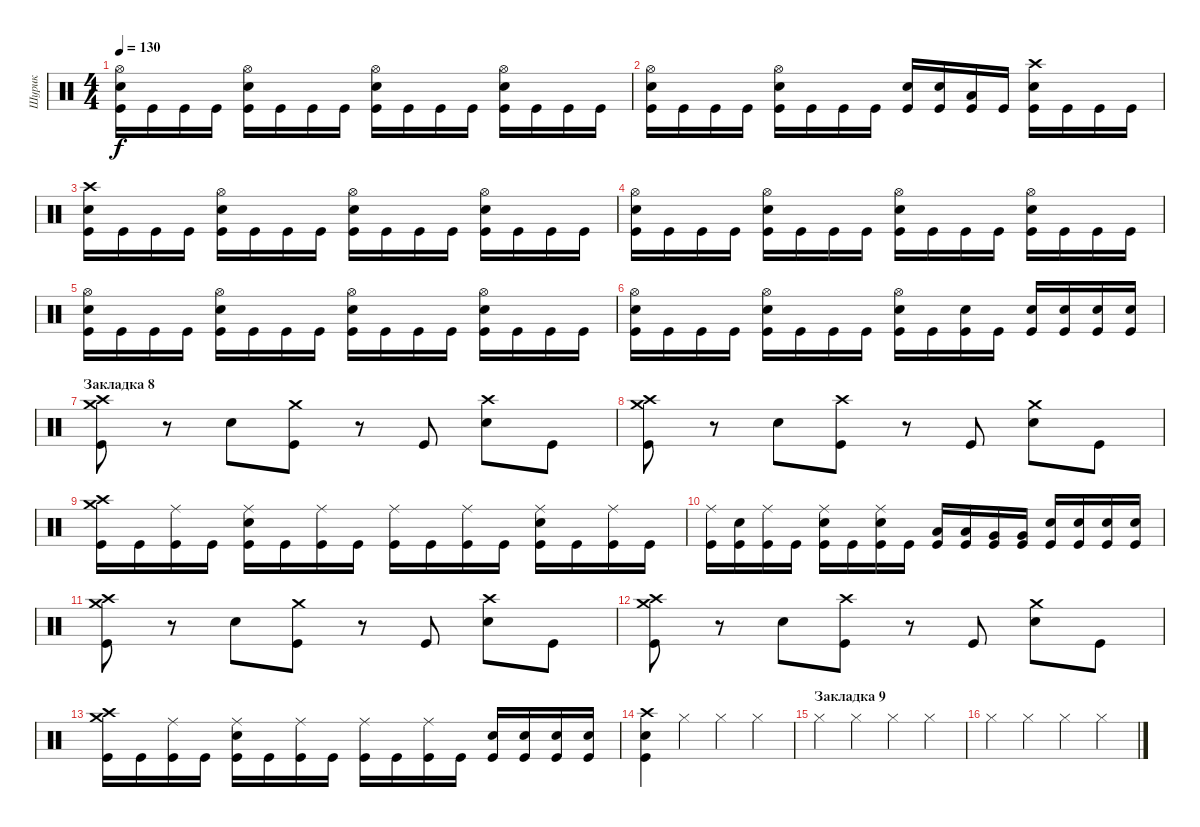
\track ("Шурик" "Шурик") {instrument percussion}
\staff {score}
\articulation defaults
\ts (4 4)
\tempo 130
\clef neutral
\ks c
("Hi-Hat (open)" "Electric Snare (hit)" "Kick (hit)").16{dy f} "Kick (hit)".16 "Kick (hit)".16 "Kick (hit)".16 ("Hi-Hat (open)" "Electric Snare (hit)" "Kick (hit)").16 "Kick (hit)".16 "Kick (hit)".16 "Kick (hit)".16 ("Hi-Hat (open)" "Electric Snare (hit)" "Kick (hit)").16 "Kick (hit)".16 "Kick (hit)".16 "Kick (hit)".16 ("Hi-Hat (open)" "Electric Snare (hit)" "Kick (hit)").16 "Kick (hit)".16 "Kick (hit)".16 "Kick (hit)".16 |
("Hi-Hat (open)" "Electric Snare (hit)" "Kick (hit)").16 "Kick (hit)".16 "Kick (hit)".16 "Kick (hit)".16 ("Hi-Hat (open)" "Electric Snare (hit)" "Kick (hit)").16 "Kick (hit)".16 "Kick (hit)".16 "Kick (hit)".16 ("Electric Snare (hit)" "Kick (hit)").16 ("Electric Snare (hit)" "Kick (hit)").16 ("Low Tom (hit)" "Kick (hit)").16 "Kick (hit)".16 ("Crash high (hit)" "Electric Snare (hit)" "Kick (hit)").16 "Kick (hit)".16 "Kick (hit)".16 "Kick (hit)".16 |
("Crash high (hit)" "Electric Snare (hit)" "Kick (hit)").16 "Kick (hit)".16 "Kick (hit)".16 "Kick (hit)".16 ("Hi-Hat (open)" "Electric Snare (hit)" "Kick (hit)").16 "Kick (hit)".16 "Kick (hit)".16 "Kick (hit)".16 ("Hi-Hat (open)" "Electric Snare (hit)" "Kick (hit)").16 "Kick (hit)".16 "Kick (hit)".16 "Kick (hit)".16 ("Hi-Hat (open)" "Electric Snare (hit)" "Kick (hit)").16 "Kick (hit)".16 "Kick (hit)".16 "Kick (hit)".16 |
("Hi-Hat (open)" "Electric Snare (hit)" "Kick (hit)").16 "Kick (hit)".16 "Kick (hit)".16 "Kick (hit)".16 ("Hi-Hat (open)" "Electric Snare (hit)" "Kick (hit)").16 "Kick (hit)".16 "Kick (hit)".16 "Kick (hit)".16 ("Hi-Hat (open)" "Electric Snare (hit)" "Kick (hit)").16 "Kick (hit)".16 "Kick (hit)".16 "Kick (hit)".16 ("Hi-Hat (open)" "Electric Snare (hit)" "Kick (hit)").16 "Kick (hit)".16 "Kick (hit)".16 "Kick (hit)".16 |
("Hi-Hat (open)" "Electric Snare (hit)" "Kick (hit)").16 "Kick (hit)".16 "Kick (hit)".16 "Kick (hit)".16 ("Hi-Hat (open)" "Electric Snare (hit)" "Kick (hit)").16 "Kick (hit)".16 "Kick (hit)".16 "Kick (hit)".16 ("Hi-Hat (open)" "Electric Snare (hit)" "Kick (hit)").16 "Kick (hit)".16 "Kick (hit)".16 "Kick (hit)".16 ("Hi-Hat (open)" "Electric Snare (hit)" "Kick (hit)").16 "Kick (hit)".16 "Kick (hit)".16 "Kick (hit)".16 |
("Hi-Hat (open)" "Electric Snare (hit)" "Kick (hit)").16 "Kick (hit)".16 "Kick (hit)".16 "Kick (hit)".16 ("Hi-Hat (open)" "Electric Snare (hit)" "Kick (hit)").16 "Kick (hit)".16 "Kick (hit)".16 "Kick (hit)".16 ("Hi-Hat (open)" "Electric Snare (hit)" "Kick (hit)").16 "Kick (hit)".16 ("Electric Snare (hit)" "Kick (hit)").16 "Kick (hit)".16 ("Electric Snare (hit)" "Kick (hit)").16 ("Electric Snare (hit)" "Kick (hit)").16 ("Electric Snare (hit)" "Kick (hit)").16 ("Electric Snare (hit)" "Kick (hit)").16 |
\section ("" "Закладка 8")
("Crash medium (hit)" "Crash high (hit)" "Kick (hit)").8 r.8 "Electric Snare (hit)".8 ("Crash medium (hit)" "Kick (hit)").8 r.8 "Kick (hit)".8 ("Crash high (hit)" "Electric Snare (hit)").8 "Kick (hit)".8 |
("Crash medium (hit)" "Crash high (hit)" "Kick (hit)").8 r.8 "Electric Snare (hit)".8 ("Crash high (hit)" "Kick (hit)").8 r.8 "Kick (hit)".8 ("Crash medium (hit)" "Electric Snare (hit)").8 "Kick (hit)".8 |
("Crash medium (hit)" "Crash high (hit)" "Kick (hit)").16 "Kick (hit)".16 ("Ride (middle)" "Kick (hit)").16 "Kick (hit)".16 ("Ride (middle)" "Electric Snare (hit)" "Kick (hit)").16 "Kick (hit)".16 ("Ride (middle)" "Kick (hit)").16 "Kick (hit)".16 ("Ride (middle)" "Kick (hit)").16 "Kick (hit)".16 ("Ride (middle)" "Kick (hit)").16 "Kick (hit)".16 ("Ride (middle)" "Electric Snare (hit)" "Kick (hit)").16 "Kick (hit)".16 ("Ride (middle)" "Kick (hit)").16 "Kick (hit)".16 |
("Ride (middle)" "Kick (hit)").16 ("Electric Snare (hit)" "Kick (hit)").16 ("Ride (middle)" "Kick (hit)").16 "Kick (hit)".16 ("Ride (middle)" "Electric Snare (hit)" "Kick (hit)").16 "Kick (hit)".16 ("Ride (middle)" "Electric Snare (hit)" "Kick (hit)").16 "Kick (hit)".16 ("Low Tom (hit)" "Kick (hit)").16 ("Low Tom (hit)" "Kick (hit)").16 ("Very Low Tom (hit)" "Kick (hit)").16 ("Very Low Tom (hit)" "Kick (hit)").16 ("Electric Snare (hit)" "Kick (hit)").16 ("Electric Snare (hit)" "Kick (hit)").16 ("Electric Snare (hit)" "Kick (hit)").16 ("Electric Snare (hit)" "Kick (hit)").16 |
("Crash medium (hit)" "Crash high (hit)" "Kick (hit)").8 r.8 "Electric Snare (hit)".8 ("Crash medium (hit)" "Kick (hit)").8 r.8 "Kick (hit)".8 ("Crash high (hit)" "Electric Snare (hit)").8 "Kick (hit)".8 |
("Crash medium (hit)" "Crash high (hit)" "Kick (hit)").8 r.8 "Electric Snare (hit)".8 ("Crash high (hit)" "Kick (hit)").8 r.8 "Kick (hit)".8 ("Crash medium (hit)" "Electric Snare (hit)").8 "Kick (hit)".8 |
("Crash medium (hit)" "Crash high (hit)" "Kick (hit)").16 "Kick (hit)".16 ("Ride (middle)" "Kick (hit)").16 "Kick (hit)".16 ("Ride (middle)" "Electric Snare (hit)" "Kick (hit)").16 "Kick (hit)".16 ("Ride (middle)" "Kick (hit)").16 "Kick (hit)".16 ("Ride (middle)" "Kick (hit)").16 "Kick (hit)".16 ("Ride (middle)" "Kick (hit)").16 "Kick (hit)".16 ("Electric Snare (hit)" "Kick (hit)").16 ("Electric Snare (hit)" "Kick (hit)").16 ("Electric Snare (hit)" "Kick (hit)").16 ("Electric Snare (hit)" "Kick (hit)").16 |
("Crash high (hit)" "Electric Snare (hit)" "Kick (hit)").4 "Hi-Hat (closed)".4 "Hi-Hat (closed)".4 "Hi-Hat (closed)".4 |
\section ("" "Закладка 9")
"Hi-Hat (closed)".4 "Hi-Hat (closed)".4 "Hi-Hat (closed)".4 "Hi-Hat (closed)".4 |
"Hi-Hat (closed)".4 "Hi-Hat (closed)".4 "Hi-Hat (closed)".4 "Hi-Hat (closed)".4
